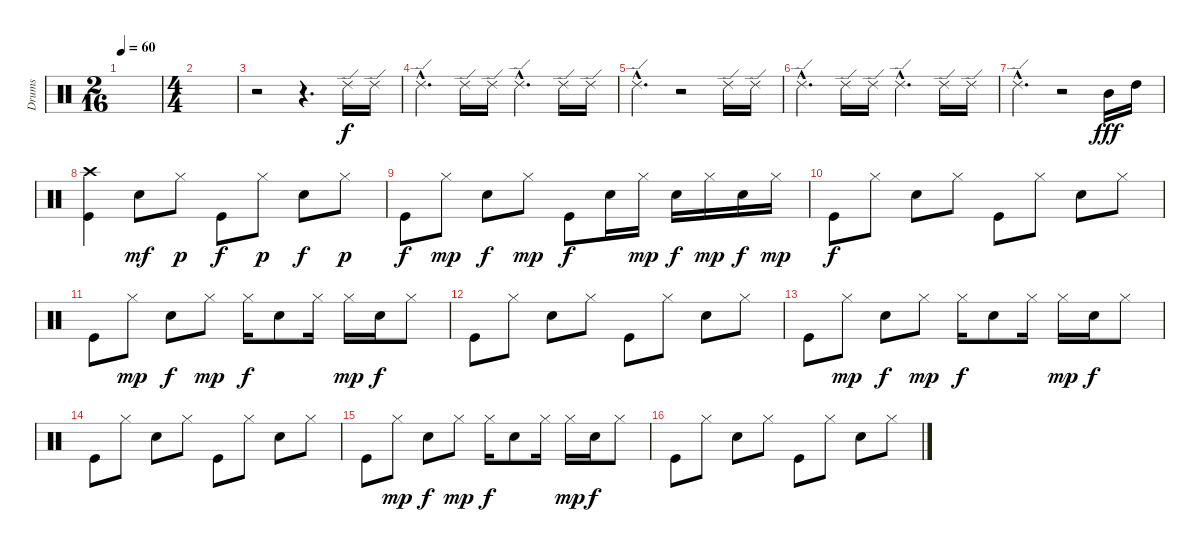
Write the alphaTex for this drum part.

\track ("Drums" "Drums") {instrument percussion}
\staff {score}
\articulation defaults
\ts (2 16)
\tempo 60
\clef neutral
\ks c
|
\ts (4 4)
|
r.2 r.4{d} "Ride (edge) 2".16 "Ride (edge) 2".16 |
"Ride (edge) 2"{hac}.4{d} "Ride (edge) 2".16 "Ride (edge) 2".16 "Ride (edge) 2"{hac}.4{d} "Ride (edge) 2".16 "Ride (edge) 2".16 |
"Ride (edge) 2"{hac}.4{d} r.2 "Ride (edge) 2".16 "Ride (edge) 2".16 |
"Ride (edge) 2"{hac}.4{d} "Ride (edge) 2".16 "Ride (edge) 2".16 "Ride (edge) 2"{hac}.4{d} "Ride (edge) 2".16 "Ride (edge) 2".16 |
"Ride (edge) 2"{hac}.4{d} r.2 "Mid Tom (hit)".16{dy fff} "High Tom (hit)".16 |
("Crash high (hit)" "Kick (hit)").4 "Snare (hit) 2".8{dy mf} "Hi-Hat (closed)".8{dy p} "Kick (hit)".8{dy f} "Hi-Hat (closed)".8{dy p} "Snare (hit) 2".8{dy f} "Hi-Hat (closed)".8{dy p} |
"Kick (hit)".8{dy f} "Hi-Hat (closed)".8{dy mp} "Snare (hit) 2".8{dy f} "Hi-Hat (closed)".8{dy mp} "Kick (hit)".8{dy f} "Snare (hit) 2".16 "Hi-Hat (closed)".16{dy mp} "Snare (hit) 2".16{dy f} "Hi-Hat (closed)".16{dy mp} "Snare (hit) 2".16{dy f} "Hi-Hat (closed)".16{dy mp} |
"Kick (hit)".8{dy f} "Hi-Hat (closed)".8 "Snare (hit) 2".8 "Hi-Hat (closed)".8 "Kick (hit)".8 "Hi-Hat (closed)".8 "Snare (hit) 2".8 "Hi-Hat (closed)".8 |
"Kick (hit)".8 "Hi-Hat (closed)".8{dy mp} "Snare (hit) 2".8{dy f} "Hi-Hat (closed)".8{dy mp} "Hi-Hat (closed)".16{dy f} "Snare (hit) 2".8 "Hi-Hat (closed)".16 "Hi-Hat (closed)".16{dy mp} "Snare (hit) 2".16{dy f} "Hi-Hat (closed)".8 |
"Kick (hit)".8 "Hi-Hat (closed)".8 "Snare (hit) 2".8 "Hi-Hat (closed)".8 "Kick (hit)".8 "Hi-Hat (closed)".8 "Snare (hit) 2".8 "Hi-Hat (closed)".8 |
"Kick (hit)".8 "Hi-Hat (closed)".8{dy mp} "Snare (hit) 2".8{dy f} "Hi-Hat (closed)".8{dy mp} "Hi-Hat (closed)".16{dy f} "Snare (hit) 2".8 "Hi-Hat (closed)".16 "Hi-Hat (closed)".16{dy mp} "Snare (hit) 2".16{dy f} "Hi-Hat (closed)".8 |
"Kick (hit)".8 "Hi-Hat (closed)".8 "Snare (hit) 2".8 "Hi-Hat (closed)".8 "Kick (hit)".8 "Hi-Hat (closed)".8 "Snare (hit) 2".8 "Hi-Hat (closed)".8 |
"Kick (hit)".8 "Hi-Hat (closed)".8{dy mp} "Snare (hit) 2".8{dy f} "Hi-Hat (closed)".8{dy mp} "Hi-Hat (closed)".16{dy f} "Snare (hit) 2".8 "Hi-Hat (closed)".16 "Hi-Hat (closed)".16{dy mp} "Snare (hit) 2".16{dy f} "Hi-Hat (closed)".8 |
"Kick (hit)".8 "Hi-Hat (closed)".8 "Snare (hit) 2".8 "Hi-Hat (closed)".8 "Kick (hit)".8 "Hi-Hat (closed)".8 "Snare (hit) 2".8 "Hi-Hat (closed)".8
